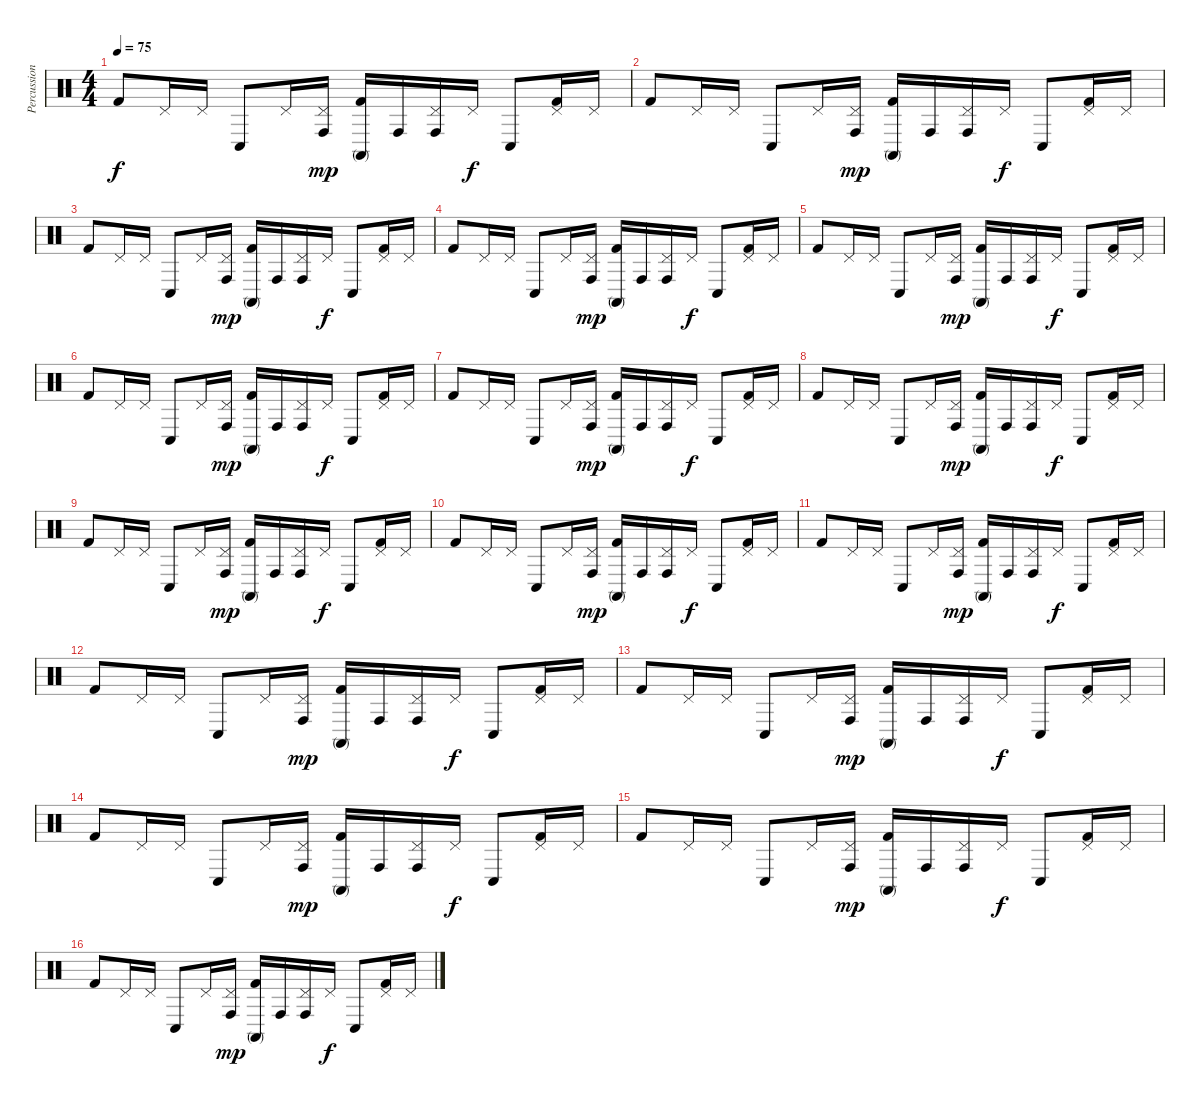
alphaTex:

\track ("Percussion" "Percussion") {instrument percussion}
\staff {score}
\articulation defaults
\ts (4 4)
\tempo 75
\clef neutral
\ks c "Kick (hit) 2".8{dy f} "Pedal Hi-Hat (hit)".16 "Pedal Hi-Hat (hit)".16 "Conga low (hit)".8 "Pedal Hi-Hat (hit)".16
("Pedal Hi-Hat (hit)" "Conga high (hit)").16{dy mp} ("Conga high (mute)" "Kick (hit) 2").16 "Conga high (hit)".16 ("Pedal Hi-Hat (hit)" "Conga high (hit)").16 "Pedal Hi-Hat (hit)".16{dy f} "Conga low (hit)".8 ("Pedal Hi-Hat (hit)" "Kick (hit) 2").16 "Pedal Hi-Hat (hit)".16 |
"Kick (hit) 2".8 "Pedal Hi-Hat (hit)".16 "Pedal Hi-Hat (hit)".16 "Conga low (hit)".8 "Pedal Hi-Hat (hit)".16 ("Pedal Hi-Hat (hit)" "Conga high (hit)").16{dy mp} ("Conga high (mute)" "Kick (hit) 2").16 "Conga high (hit)".16 ("Pedal Hi-Hat (hit)" "Conga high (hit)").16 "Pedal Hi-Hat (hit)".16{dy f} "Conga low (hit)".8 ("Pedal Hi-Hat (hit)" "Kick (hit) 2").16 "Pedal Hi-Hat (hit)".16 |
"Kick (hit) 2".8 "Pedal Hi-Hat (hit)".16 "Pedal Hi-Hat (hit)".16 "Conga low (hit)".8 "Pedal Hi-Hat (hit)".16 ("Pedal Hi-Hat (hit)" "Conga high (hit)").16{dy mp} ("Conga high (mute)" "Kick (hit) 2").16 "Conga high (hit)".16 ("Pedal Hi-Hat (hit)" "Conga high (hit)").16 "Pedal Hi-Hat (hit)".16{dy f} "Conga low (hit)".8 ("Pedal Hi-Hat (hit)" "Kick (hit) 2").16 "Pedal Hi-Hat (hit)".16 |
"Kick (hit) 2".8 "Pedal Hi-Hat (hit)".16 "Pedal Hi-Hat (hit)".16 "Conga low (hit)".8 "Pedal Hi-Hat (hit)".16 ("Pedal Hi-Hat (hit)" "Conga high (hit)").16{dy mp} ("Conga high (mute)" "Kick (hit) 2").16 "Conga high (hit)".16 ("Pedal Hi-Hat (hit)" "Conga high (hit)").16 "Pedal Hi-Hat (hit)".16{dy f} "Conga low (hit)".8 ("Pedal Hi-Hat (hit)" "Kick (hit) 2").16 "Pedal Hi-Hat (hit)".16 |
"Kick (hit) 2".8 "Pedal Hi-Hat (hit)".16 "Pedal Hi-Hat (hit)".16 "Conga low (hit)".8 "Pedal Hi-Hat (hit)".16 ("Pedal Hi-Hat (hit)" "Conga high (hit)").16{dy mp} ("Conga high (mute)" "Kick (hit) 2").16 "Conga high (hit)".16 ("Pedal Hi-Hat (hit)" "Conga high (hit)").16 "Pedal Hi-Hat (hit)".16{dy f} "Conga low (hit)".8 ("Pedal Hi-Hat (hit)" "Kick (hit) 2").16 "Pedal Hi-Hat (hit)".16 |
"Kick (hit) 2".8 "Pedal Hi-Hat (hit)".16 "Pedal Hi-Hat (hit)".16 "Conga low (hit)".8 "Pedal Hi-Hat (hit)".16 ("Pedal Hi-Hat (hit)" "Conga high (hit)").16{dy mp} ("Conga high (mute)" "Kick (hit) 2").16 "Conga high (hit)".16 ("Pedal Hi-Hat (hit)" "Conga high (hit)").16 "Pedal Hi-Hat (hit)".16{dy f} "Conga low (hit)".8 ("Pedal Hi-Hat (hit)" "Kick (hit) 2").16 "Pedal Hi-Hat (hit)".16 |
"Kick (hit) 2".8 "Pedal Hi-Hat (hit)".16 "Pedal Hi-Hat (hit)".16 "Conga low (hit)".8 "Pedal Hi-Hat (hit)".16 ("Pedal Hi-Hat (hit)" "Conga high (hit)").16{dy mp} ("Conga high (mute)" "Kick (hit) 2").16 "Conga high (hit)".16 ("Pedal Hi-Hat (hit)" "Conga high (hit)").16 "Pedal Hi-Hat (hit)".16{dy f} "Conga low (hit)".8 ("Pedal Hi-Hat (hit)" "Kick (hit) 2").16 "Pedal Hi-Hat (hit)".16 |
"Kick (hit) 2".8 "Pedal Hi-Hat (hit)".16 "Pedal Hi-Hat (hit)".16 "Conga low (hit)".8 "Pedal Hi-Hat (hit)".16 ("Pedal Hi-Hat (hit)" "Conga high (hit)").16{dy mp} ("Conga high (mute)" "Kick (hit) 2").16 "Conga high (hit)".16 ("Pedal Hi-Hat (hit)" "Conga high (hit)").16 "Pedal Hi-Hat (hit)".16{dy f} "Conga low (hit)".8 ("Pedal Hi-Hat (hit)" "Kick (hit) 2").16 "Pedal Hi-Hat (hit)".16 |
"Kick (hit) 2".8 "Pedal Hi-Hat (hit)".16 "Pedal Hi-Hat (hit)".16 "Conga low (hit)".8 "Pedal Hi-Hat (hit)".16 ("Pedal Hi-Hat (hit)" "Conga high (hit)").16{dy mp} ("Conga high (mute)" "Kick (hit) 2").16 "Conga high (hit)".16 ("Pedal Hi-Hat (hit)" "Conga high (hit)").16 "Pedal Hi-Hat (hit)".16{dy f} "Conga low (hit)".8 ("Pedal Hi-Hat (hit)" "Kick (hit) 2").16 "Pedal Hi-Hat (hit)".16 |
"Kick (hit) 2".8 "Pedal Hi-Hat (hit)".16 "Pedal Hi-Hat (hit)".16 "Conga low (hit)".8 "Pedal Hi-Hat (hit)".16 ("Pedal Hi-Hat (hit)" "Conga high (hit)").16{dy mp} ("Conga high (mute)" "Kick (hit) 2").16 "Conga high (hit)".16 ("Pedal Hi-Hat (hit)" "Conga high (hit)").16 "Pedal Hi-Hat (hit)".16{dy f} "Conga low (hit)".8 ("Pedal Hi-Hat (hit)" "Kick (hit) 2").16 "Pedal Hi-Hat (hit)".16 |
"Kick (hit) 2".8 "Pedal Hi-Hat (hit)".16 "Pedal Hi-Hat (hit)".16 "Conga low (hit)".8 "Pedal Hi-Hat (hit)".16 ("Pedal Hi-Hat (hit)" "Conga high (hit)").16{dy mp} ("Conga high (mute)" "Kick (hit) 2").16 "Conga high (hit)".16 ("Pedal Hi-Hat (hit)" "Conga high (hit)").16 "Pedal Hi-Hat (hit)".16{dy f} "Conga low (hit)".8 ("Pedal Hi-Hat (hit)" "Kick (hit) 2").16 "Pedal Hi-Hat (hit)".16 |
"Kick (hit) 2".8 "Pedal Hi-Hat (hit)".16 "Pedal Hi-Hat (hit)".16 "Conga low (hit)".8 "Pedal Hi-Hat (hit)".16 ("Pedal Hi-Hat (hit)" "Conga high (hit)").16{dy mp} ("Conga high (mute)" "Kick (hit) 2").16 "Conga high (hit)".16 ("Pedal Hi-Hat (hit)" "Conga high (hit)").16 "Pedal Hi-Hat (hit)".16{dy f} "Conga low (hit)".8 ("Pedal Hi-Hat (hit)" "Kick (hit) 2").16 "Pedal Hi-Hat (hit)".16 |
"Kick (hit) 2".8 "Pedal Hi-Hat (hit)".16 "Pedal Hi-Hat (hit)".16 "Conga low (hit)".8 "Pedal Hi-Hat (hit)".16 ("Pedal Hi-Hat (hit)" "Conga high (hit)").16{dy mp} ("Conga high (mute)" "Kick (hit) 2").16 "Conga high (hit)".16 ("Pedal Hi-Hat (hit)" "Conga high (hit)").16 "Pedal Hi-Hat (hit)".16{dy f} "Conga low (hit)".8 ("Pedal Hi-Hat (hit)" "Kick (hit) 2").16 "Pedal Hi-Hat (hit)".16 |
"Kick (hit) 2".8 "Pedal Hi-Hat (hit)".16 "Pedal Hi-Hat (hit)".16 "Conga low (hit)".8 "Pedal Hi-Hat (hit)".16 ("Pedal Hi-Hat (hit)" "Conga high (hit)").16{dy mp} ("Conga high (mute)" "Kick (hit) 2").16 "Conga high (hit)".16 ("Pedal Hi-Hat (hit)" "Conga high (hit)").16 "Pedal Hi-Hat (hit)".16{dy f} "Conga low (hit)".8 ("Pedal Hi-Hat (hit)" "Kick (hit) 2").16 "Pedal Hi-Hat (hit)".16 |
"Kick (hit) 2".8 "Pedal Hi-Hat (hit)".16 "Pedal Hi-Hat (hit)".16 "Conga low (hit)".8 "Pedal Hi-Hat (hit)".16 ("Pedal Hi-Hat (hit)" "Conga high (hit)").16{dy mp} ("Conga high (mute)" "Kick (hit) 2").16 "Conga high (hit)".16 ("Pedal Hi-Hat (hit)" "Conga high (hit)").16 "Pedal Hi-Hat (hit)".16{dy f} "Conga low (hit)".8 ("Pedal Hi-Hat (hit)" "Kick (hit) 2").16 "Pedal Hi-Hat (hit)".16 |
"Kick (hit) 2".8 "Pedal Hi-Hat (hit)".16 "Pedal Hi-Hat (hit)".16 "Conga low (hit)".8 "Pedal Hi-Hat (hit)".16 ("Pedal Hi-Hat (hit)" "Conga high (hit)").16{dy mp} ("Conga high (mute)" "Kick (hit) 2").16 "Conga high (hit)".16 ("Pedal Hi-Hat (hit)" "Conga high (hit)").16 "Pedal Hi-Hat (hit)".16{dy f} "Conga low (hit)".8 ("Pedal Hi-Hat (hit)" "Kick (hit) 2").16 "Pedal Hi-Hat (hit)".16
